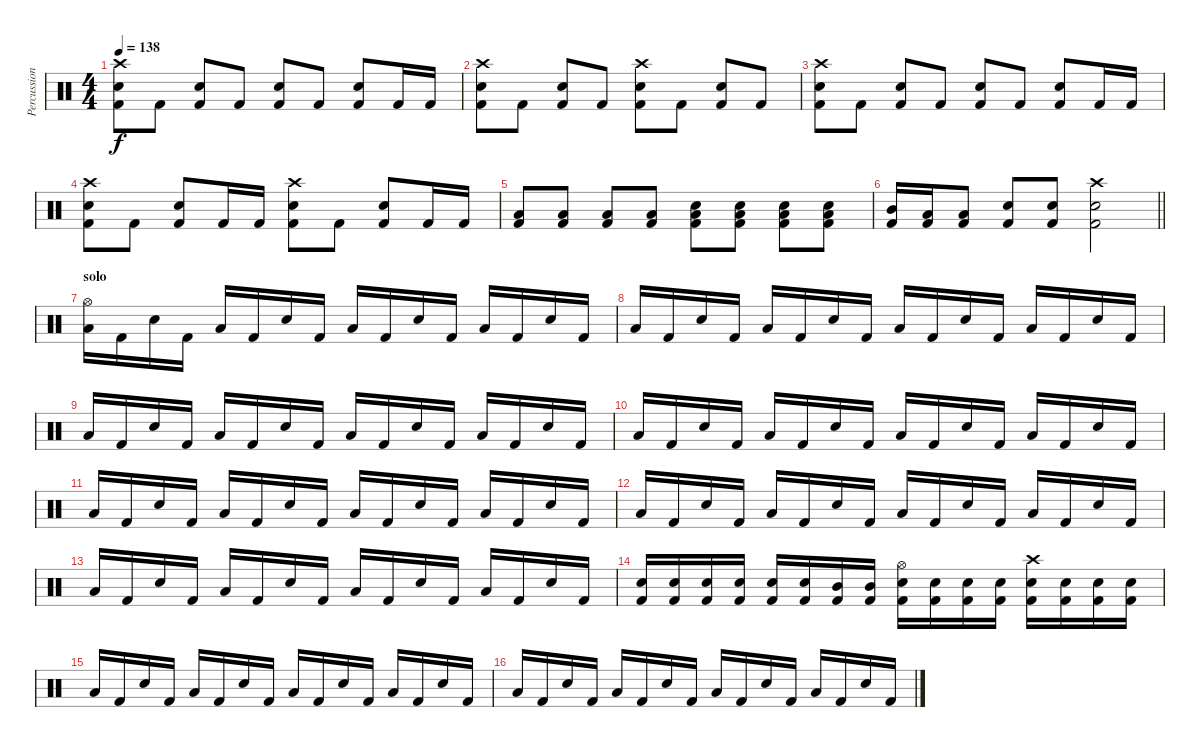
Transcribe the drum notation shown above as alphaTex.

\track ("Percussion" "Percussion") {instrument percussion}
\staff {score}
\articulation defaults
\ts (4 4)
\tempo 138
\clef neutral
\ks c
("Crash high (hit)" "Snare (hit) 2" "Kick (hit) 2").8{dy f} "Kick (hit) 2".8 ("Snare (hit) 2" "Kick (hit) 2").8 "Kick (hit) 2".8 ("Snare (hit) 2" "Kick (hit) 2").8 "Kick (hit) 2".8 ("Snare (hit) 2" "Kick (hit) 2").8 "Kick (hit) 2".16 "Kick (hit) 2".16 |
("Crash high (hit)" "Snare (hit) 2" "Kick (hit) 2").8 "Kick (hit) 2".8 ("Snare (hit) 2" "Kick (hit) 2").8 "Kick (hit) 2".8 ("Crash high (hit)" "Snare (hit) 2" "Kick (hit) 2").8 "Kick (hit) 2".8 ("Snare (hit) 2" "Kick (hit) 2").8 "Kick (hit) 2".8 |
("Crash high (hit)" "Snare (hit) 2" "Kick (hit) 2").8 "Kick (hit) 2".8 ("Snare (hit) 2" "Kick (hit) 2").8 "Kick (hit) 2".8 ("Snare (hit) 2" "Kick (hit) 2").8 "Kick (hit) 2".8 ("Snare (hit) 2" "Kick (hit) 2").8 "Kick (hit) 2".16 "Kick (hit) 2".16 |
("Crash high (hit)" "Snare (hit) 2" "Kick (hit) 2").8 "Kick (hit) 2".8 ("Snare (hit) 2" "Kick (hit) 2").8 "Kick (hit) 2".16 "Kick (hit) 2".16 ("Crash high (hit)" "Snare (hit) 2" "Kick (hit) 2").8 "Kick (hit) 2".8 ("Snare (hit) 2" "Kick (hit) 2").8 "Kick (hit) 2".16 "Kick (hit) 2".16 |
("Low Tom (hit)" "Kick (hit) 2").8 ("Low Tom (hit)" "Kick (hit) 2").8 ("Low Tom (hit)" "Kick (hit) 2").8 ("Low Tom (hit)" "Kick (hit) 2").8 ("Low Tom (hit)" "Snare (hit) 2" "Kick (hit) 2").8 ("Low Tom (hit)" "Snare (hit) 2" "Kick (hit) 2").8 ("Low Tom (hit)" "Snare (hit) 2" "Kick (hit) 2").8 ("Low Tom (hit)" "Snare (hit) 2" "Kick (hit) 2").8 |
\barLineRight lightlight
("Mid Tom (hit)" "Kick (hit) 2").16 ("Low Tom (hit)" "Kick (hit) 2").16 ("Low Tom (hit)" "Kick (hit) 2").8 ("Snare (hit) 2" "Kick (hit) 2").8 ("Snare (hit) 2" "Kick (hit) 2").8 ("Crash high (hit)" "Snare (hit) 2" "Kick (hit) 2").2 |
\section ("" "solo")
("Hi-Hat (open)" "Low Tom (hit)").16 "Kick (hit) 2".16 "Snare (hit) 2".16 "Kick (hit) 2".16 "Low Tom (hit)".16 "Kick (hit) 2".16 "Snare (hit) 2".16 "Kick (hit) 2".16 "Low Tom (hit)".16 "Kick (hit) 2".16 "Snare (hit) 2".16 "Kick (hit) 2".16 "Low Tom (hit)".16 "Kick (hit) 2".16 "Snare (hit) 2".16 "Kick (hit) 2".16 |
"Low Tom (hit)".16 "Kick (hit) 2".16 "Snare (hit) 2".16 "Kick (hit) 2".16 "Low Tom (hit)".16 "Kick (hit) 2".16 "Snare (hit) 2".16 "Kick (hit) 2".16 "Low Tom (hit)".16 "Kick (hit) 2".16 "Snare (hit) 2".16 "Kick (hit) 2".16 "Low Tom (hit)".16 "Kick (hit) 2".16 "Snare (hit) 2".16 "Kick (hit) 2".16 |
"Low Tom (hit)".16 "Kick (hit) 2".16 "Snare (hit) 2".16 "Kick (hit) 2".16 "Low Tom (hit)".16 "Kick (hit) 2".16 "Snare (hit) 2".16 "Kick (hit) 2".16 "Low Tom (hit)".16 "Kick (hit) 2".16 "Snare (hit) 2".16 "Kick (hit) 2".16 "Low Tom (hit)".16 "Kick (hit) 2".16 "Snare (hit) 2".16 "Kick (hit) 2".16 |
"Low Tom (hit)".16 "Kick (hit) 2".16 "Snare (hit) 2".16 "Kick (hit) 2".16 "Low Tom (hit)".16 "Kick (hit) 2".16 "Snare (hit) 2".16 "Kick (hit) 2".16 "Low Tom (hit)".16 "Kick (hit) 2".16 "Snare (hit) 2".16 "Kick (hit) 2".16 "Low Tom (hit)".16 "Kick (hit) 2".16 "Snare (hit) 2".16 "Kick (hit) 2".16 |
"Low Tom (hit)".16 "Kick (hit) 2".16 "Snare (hit) 2".16 "Kick (hit) 2".16 "Low Tom (hit)".16 "Kick (hit) 2".16 "Snare (hit) 2".16 "Kick (hit) 2".16 "Low Tom (hit)".16 "Kick (hit) 2".16 "Snare (hit) 2".16 "Kick (hit) 2".16 "Low Tom (hit)".16 "Kick (hit) 2".16 "Snare (hit) 2".16 "Kick (hit) 2".16 |
"Low Tom (hit)".16 "Kick (hit) 2".16 "Snare (hit) 2".16 "Kick (hit) 2".16 "Low Tom (hit)".16 "Kick (hit) 2".16 "Snare (hit) 2".16 "Kick (hit) 2".16 "Low Tom (hit)".16 "Kick (hit) 2".16 "Snare (hit) 2".16 "Kick (hit) 2".16 "Low Tom (hit)".16 "Kick (hit) 2".16 "Snare (hit) 2".16 "Kick (hit) 2".16 |
"Low Tom (hit)".16 "Kick (hit) 2".16 "Snare (hit) 2".16 "Kick (hit) 2".16 "Low Tom (hit)".16 "Kick (hit) 2".16 "Snare (hit) 2".16 "Kick (hit) 2".16 "Low Tom (hit)".16 "Kick (hit) 2".16 "Snare (hit) 2".16 "Kick (hit) 2".16 "Low Tom (hit)".16 "Kick (hit) 2".16 "Snare (hit) 2".16 "Kick (hit) 2".16 |
("Snare (hit) 2" "Kick (hit) 2").16 ("Snare (hit) 2" "Kick (hit) 2").16 ("Snare (hit) 2" "Kick (hit) 2").16 ("Snare (hit) 2" "Kick (hit) 2").16 ("Snare (hit) 2" "Kick (hit) 2").16 ("Snare (hit) 2" "Kick (hit) 2").16 ("Mid Tom (hit)" "Kick (hit) 2").16 ("Mid Tom (hit)" "Kick (hit) 2").16 ("Hi-Hat (open)" "Snare (hit) 2" "Kick (hit) 2").16 ("Snare (hit) 2" "Kick (hit) 2").16 ("Snare (hit) 2" "Kick (hit) 2").16 ("Snare (hit) 2" "Kick (hit) 2").16 ("Crash high (hit)" "Snare (hit) 2" "Kick (hit) 2").16 ("Snare (hit) 2" "Kick (hit) 2").16 ("Snare (hit) 2" "Kick (hit) 2").16 ("Snare (hit) 2" "Kick (hit) 2").16 |
"Low Tom (hit)".16 "Kick (hit) 2".16 "Snare (hit) 2".16 "Kick (hit) 2".16 "Low Tom (hit)".16 "Kick (hit) 2".16 "Snare (hit) 2".16 "Kick (hit) 2".16 "Low Tom (hit)".16 "Kick (hit) 2".16 "Snare (hit) 2".16 "Kick (hit) 2".16 "Low Tom (hit)".16 "Kick (hit) 2".16 "Snare (hit) 2".16 "Kick (hit) 2".16 |
"Low Tom (hit)".16 "Kick (hit) 2".16 "Snare (hit) 2".16 "Kick (hit) 2".16 "Low Tom (hit)".16 "Kick (hit) 2".16 "Snare (hit) 2".16 "Kick (hit) 2".16 "Low Tom (hit)".16 "Kick (hit) 2".16 "Snare (hit) 2".16 "Kick (hit) 2".16 "Low Tom (hit)".16 "Kick (hit) 2".16 "Snare (hit) 2".16 "Kick (hit) 2".16
